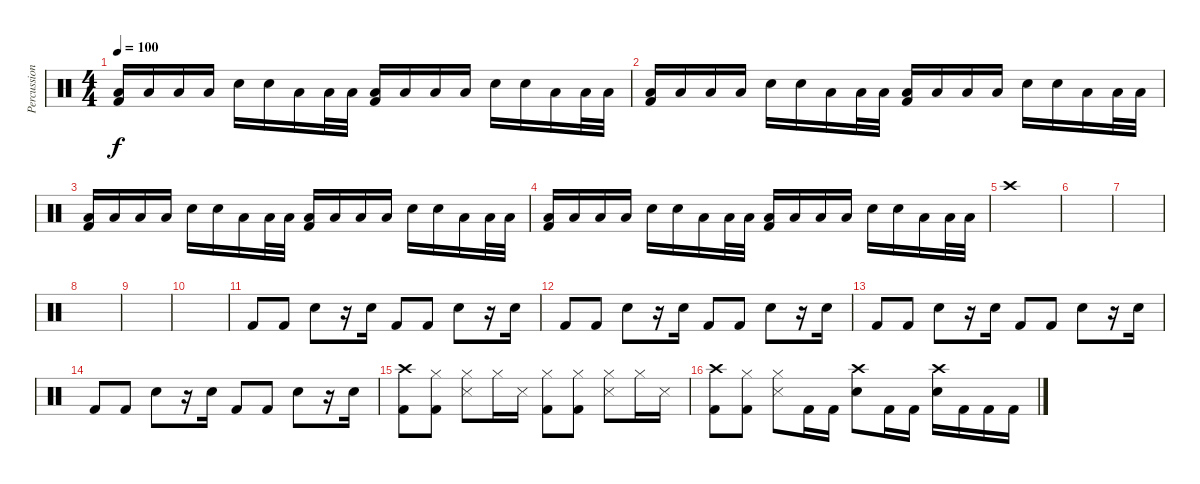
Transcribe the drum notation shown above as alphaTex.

\track ("Percussion" "Percussion") {instrument percussion}
\staff {score}
\articulation defaults
\ts (4 4)
\tempo 100
\clef neutral
\ks c
("Low Floor Tom (hit)" "Kick (hit) 2").16{dy f} "Low Floor Tom (hit)".16 "Low Floor Tom (hit)".16 "Low Floor Tom (hit)".16 "Snare (hit) 2".16 "Snare (hit) 2".16 "Low Floor Tom (hit)".16 "Low Floor Tom (hit)".32 "Low Floor Tom (hit)".32 ("Low Floor Tom (hit)" "Kick (hit) 2").16 "Low Floor Tom (hit)".16 "Low Floor Tom (hit)".16 "Low Floor Tom (hit)".16 "Snare (hit) 2".16 "Snare (hit) 2".16 "Low Floor Tom (hit)".16 "Low Floor Tom (hit)".32 "Low Floor Tom (hit)".32 |
("Low Floor Tom (hit)" "Kick (hit) 2").16 "Low Floor Tom (hit)".16 "Low Floor Tom (hit)".16 "Low Floor Tom (hit)".16 "Snare (hit) 2".16 "Snare (hit) 2".16 "Low Floor Tom (hit)".16 "Low Floor Tom (hit)".32 "Low Floor Tom (hit)".32 ("Low Floor Tom (hit)" "Kick (hit) 2").16 "Low Floor Tom (hit)".16 "Low Floor Tom (hit)".16 "Low Floor Tom (hit)".16 "Snare (hit) 2".16 "Snare (hit) 2".16 "Low Floor Tom (hit)".16 "Low Floor Tom (hit)".32 "Low Floor Tom (hit)".32 |
("Low Floor Tom (hit)" "Kick (hit) 2").16 "Low Floor Tom (hit)".16 "Low Floor Tom (hit)".16 "Low Floor Tom (hit)".16 "Snare (hit) 2".16 "Snare (hit) 2".16 "Low Floor Tom (hit)".16 "Low Floor Tom (hit)".32 "Low Floor Tom (hit)".32 ("Low Floor Tom (hit)" "Kick (hit) 2").16 "Low Floor Tom (hit)".16 "Low Floor Tom (hit)".16 "Low Floor Tom (hit)".16 "Snare (hit) 2".16 "Snare (hit) 2".16 "Low Floor Tom (hit)".16 "Low Floor Tom (hit)".32 "Low Floor Tom (hit)".32 |
("Low Floor Tom (hit)" "Kick (hit) 2").16 "Low Floor Tom (hit)".16 "Low Floor Tom (hit)".16 "Low Floor Tom (hit)".16 "Snare (hit) 2".16 "Snare (hit) 2".16 "Low Floor Tom (hit)".16 "Low Floor Tom (hit)".32 "Low Floor Tom (hit)".32 ("Low Floor Tom (hit)" "Kick (hit) 2").16 "Low Floor Tom (hit)".16 "Low Floor Tom (hit)".16 "Low Floor Tom (hit)".16 "Snare (hit) 2".16 "Snare (hit) 2".16 "Low Floor Tom (hit)".16 "Low Floor Tom (hit)".32 "Low Floor Tom (hit)".32 |
"Crash high (hit)".1 |
|
|
|
|
|
"Kick (hit) 2".8 "Kick (hit) 2".8 "Snare (hit) 2".8 r.16 "Snare (hit) 2".16 "Kick (hit) 2".8 "Kick (hit) 2".8 "Snare (hit) 2".8 r.16 "Snare (hit) 2".16 |
"Kick (hit) 2".8 "Kick (hit) 2".8 "Snare (hit) 2".8 r.16 "Snare (hit) 2".16 "Kick (hit) 2".8 "Kick (hit) 2".8 "Snare (hit) 2".8 r.16 "Snare (hit) 2".16 |
"Kick (hit) 2".8 "Kick (hit) 2".8 "Snare (hit) 2".8 r.16 "Snare (hit) 2".16 "Kick (hit) 2".8 "Kick (hit) 2".8 "Snare (hit) 2".8 r.16 "Snare (hit) 2".16 |
"Kick (hit) 2".8 "Kick (hit) 2".8 "Snare (hit) 2".8 r.16 "Snare (hit) 2".16 "Kick (hit) 2".8 "Kick (hit) 2".8 "Snare (hit) 2".8 r.16 "Snare (hit) 2".16 |
("Crash high (hit)" "Kick (hit) 2").8 ("Hi-Hat (closed)" "Kick (hit) 2").8 ("Hi-Hat (closed)" "Snare (side stick) 3").8 "Hi-Hat (closed)".16 "Snare (side stick) 3".16 ("Hi-Hat (closed)" "Kick (hit) 2").8 ("Hi-Hat (closed)" "Kick (hit) 2").8 ("Hi-Hat (closed)" "Snare (side stick) 3").8 "Hi-Hat (closed)".16 "Snare (side stick) 3".16 |
("Crash high (hit)" "Kick (hit) 2").8 ("Hi-Hat (closed)" "Kick (hit) 2").8 ("Hi-Hat (closed)" "Snare (side stick) 3").8 "Kick (hit) 2".16 "Kick (hit) 2".16 ("Crash high (hit)" "Snare (hit) 2").8 "Kick (hit) 2".16 "Kick (hit) 2".16 ("Crash high (hit)" "Snare (hit) 2").16 "Kick (hit) 2".16 "Kick (hit) 2".16 "Kick (hit) 2".16
